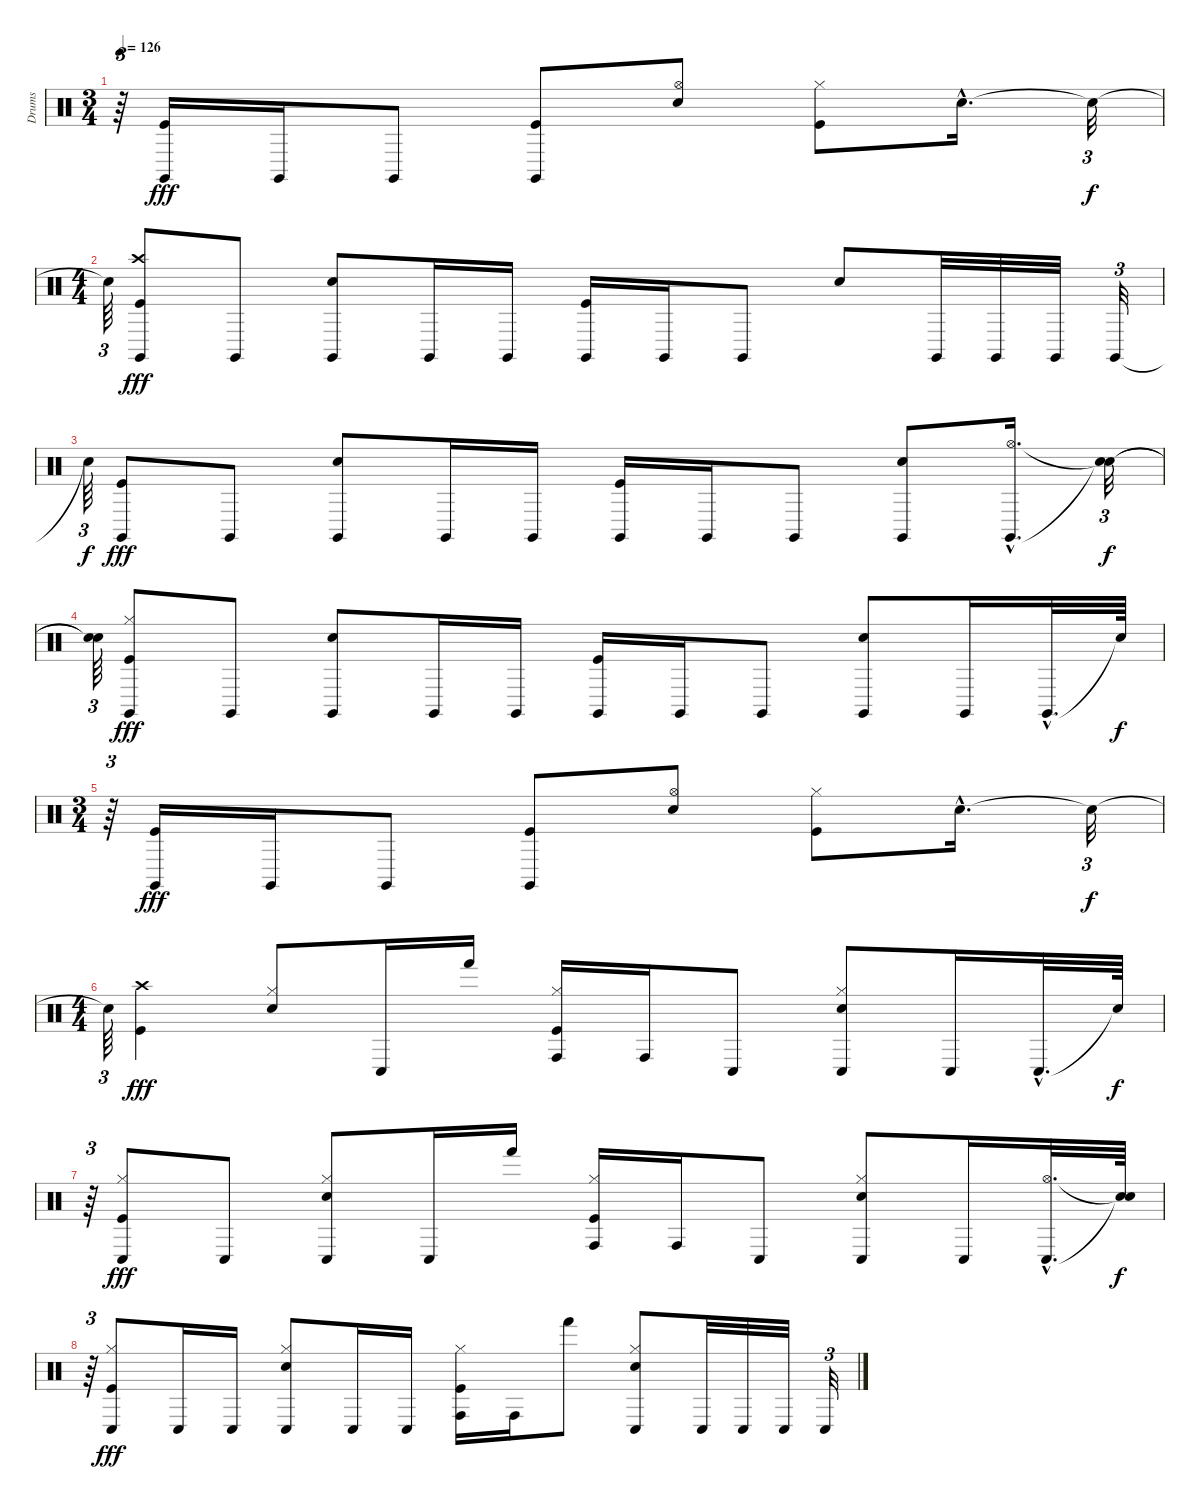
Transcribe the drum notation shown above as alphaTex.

\track ("Drums" "Drums") {instrument percussion}
\staff {score}
\articulation defaults
\ts (3 4)
\tempo 126
\clef neutral
\ks c
r.64{tu (3 2) dy f} ("Kick (hit)" "Claves (hit)").16{dy fff} "Claves (hit)".16 "Claves (hit)".8 ("Kick (hit)" "Claves (hit)").8 ("Snare (hit) 2" "Hi-Hat (open)").8 ("Kick (hit)" "Hi-Hat (closed)").8 "Snare (hit) 2"{hac}.16{d} "Snare (hit)"{t}.32{tu (3 2) dy f} |
\ts (4 4)
"Snare (hit)"{t}.64{tu (3 2)} ("Kick (hit)" "Crash high (hit)" "Claves (hit)").8{dy fff} "Claves (hit)".8 ("Snare (hit) 2" "Claves (hit)").8 "Claves (hit)".16 "Claves (hit)".16 ("Kick (hit)" "Claves (hit)").16 "Claves (hit)".16 "Claves (hit)".8 "Snare (hit) 2".8 "Claves (hit)".32 "Claves (hit)".32 "Claves (hit)".32 "Claves (hit)".32{tu (3 2)} |
"Snare (hit)"{t}.64{tu (3 2) dy f} ("Kick (hit)" "Claves (hit)").8{dy fff} "Claves (hit)".8 ("Snare (hit) 2" "Claves (hit)").8 "Claves (hit)".16 "Claves (hit)".16 ("Kick (hit)" "Claves (hit)").16 "Claves (hit)".16 "Claves (hit)".8 ("Snare (hit) 2" "Claves (hit)").8 ("Hi-Hat (open)"{hac} "Claves (hit)"{hac}).16{d} ("Snare (hit)"{t} "Snare (hit)"{t}).32{tu (3 2) dy f} |
("Snare (hit)"{t} "Snare (hit)"{t}).64{tu (3 2)} ("Kick (hit)" "Hi-Hat (closed)" "Claves (hit)").8{dy fff} "Claves (hit)".8 ("Snare (hit) 2" "Claves (hit)").8 "Claves (hit)".16 "Claves (hit)".16 ("Kick (hit)" "Claves (hit)").16 "Claves (hit)".16 "Claves (hit)".8 ("Snare (hit) 2" "Claves (hit)").8 "Claves (hit)".16 "Claves (hit)"{hac}.32{d} "Snare (hit)"{t}.64{dy f} |
\ts (3 4)
r.64{tu (3 2)} ("Kick (hit)" "Claves (hit)").16{dy fff} "Claves (hit)".16 "Claves (hit)".8 ("Kick (hit)" "Claves (hit)").8 ("Snare (hit) 2" "Hi-Hat (open)").8 ("Kick (hit)" "Hi-Hat (closed)").8 "Snare (hit) 2"{hac}.16{d} "Snare (hit)"{t}.32{tu (3 2) dy f} |
\ts (4 4)
"Snare (hit)"{t}.64{tu (3 2)} ("Kick (hit)" "Crash high (hit)").4{dy fff} ("Snare (hit) 2" "Hi-Hat (closed)").8 "Conga low (hit)".16 "Hand (hit)".16 ("Kick (hit)" "Hi-Hat (closed)" "Conga high (hit)").16 "Conga high (hit)".16 "Conga low (hit)".8 ("Snare (hit) 2" "Hi-Hat (closed)" "Conga low (hit)").8 "Conga low (hit)".16 "Conga low (hit)"{hac}.32{d} "Snare (hit)"{t}.64{dy f} |
r.64{tu (3 2)} ("Kick (hit)" "Hi-Hat (closed)" "Conga low (hit)").8{dy fff} "Conga low (hit)".8 ("Snare (hit) 2" "Hi-Hat (closed)" "Conga low (hit)").8 "Conga low (hit)".16 "Hand (hit)".16 ("Kick (hit)" "Hi-Hat (closed)" "Conga high (hit)").16 "Conga high (hit)".16 "Conga low (hit)".8 ("Snare (hit) 2" "Hi-Hat (closed)" "Conga low (hit)").8 "Conga low (hit)".16 ("Hi-Hat (open)"{hac} "Conga low (hit)"{hac}).32{d} ("Snare (hit)"{t} "Snare (hit)"{t}).64{dy f} |
r.64{tu (3 2)} ("Kick (hit)" "Hi-Hat (closed)" "Conga low (hit)").8{dy fff} "Conga low (hit)".16 "Conga low (hit)".16 ("Snare (hit) 2" "Hi-Hat (closed)" "Conga low (hit)").8 "Conga low (hit)".16 "Conga low (hit)".16 ("Kick (hit)" "Hi-Hat (closed)" "Conga high (hit)").16 "Conga high (hit)".16 "Hand (hit)".8 ("Snare (hit) 2" "Hi-Hat (closed)" "Conga low (hit)").8 "Conga low (hit)".32 "Conga low (hit)".32 "Conga low (hit)".32 "Conga low (hit)".32{tu (3 2)}
